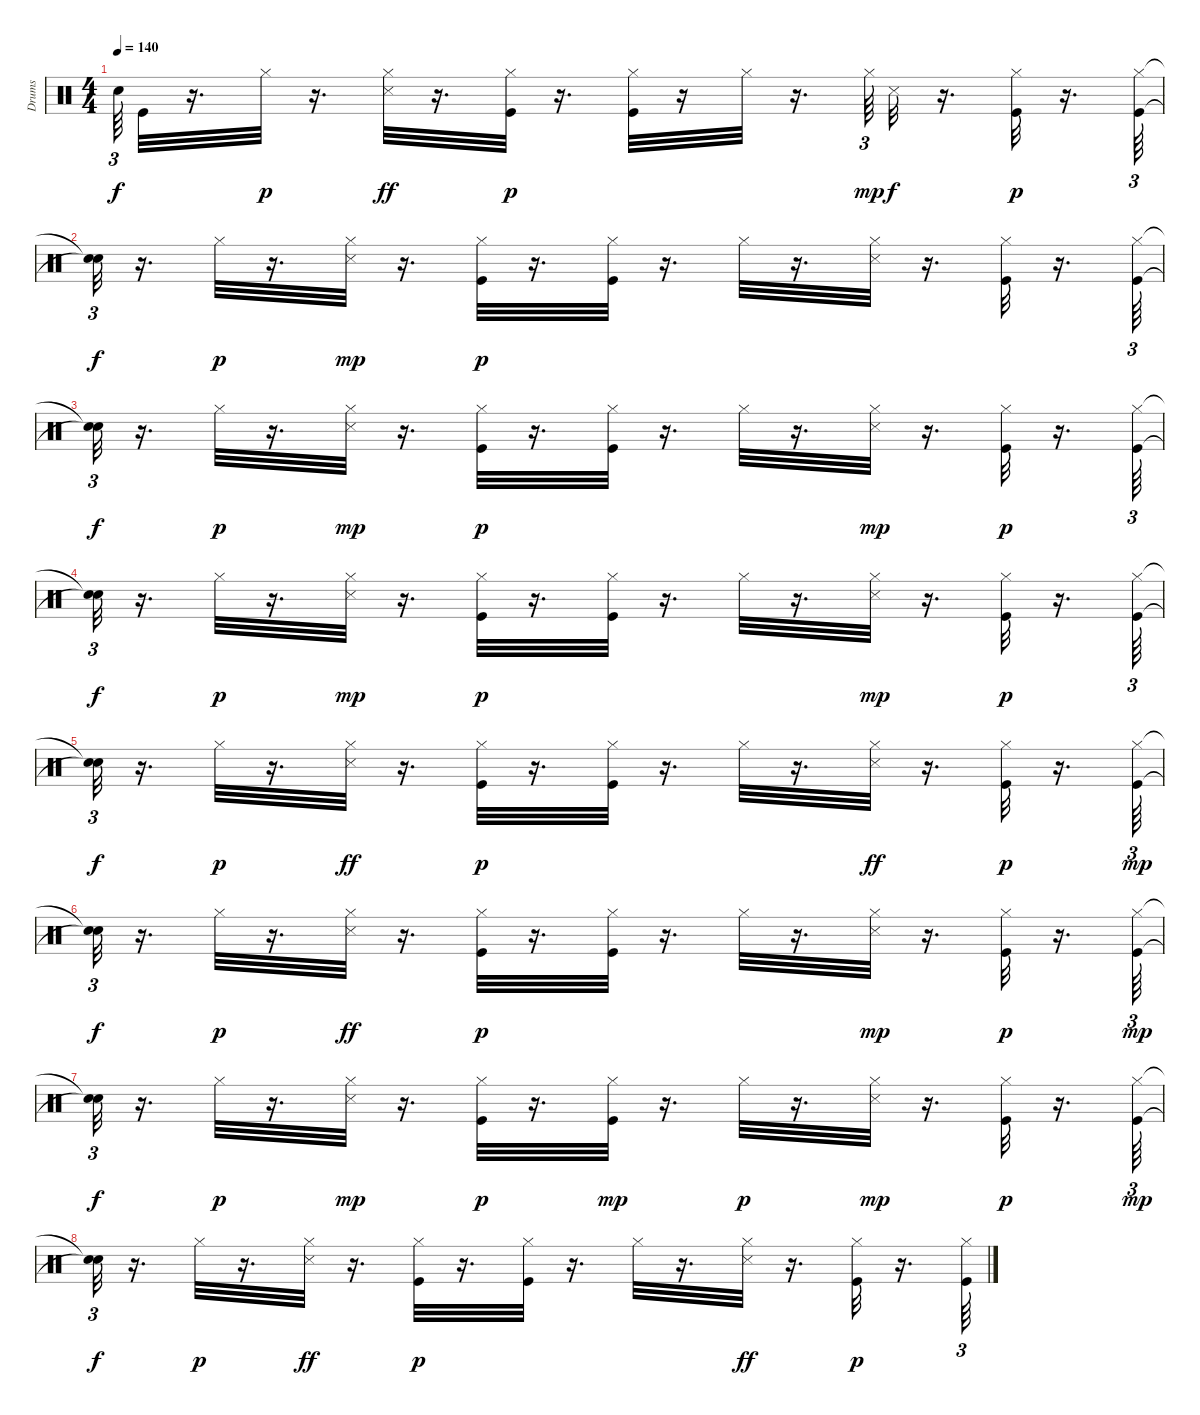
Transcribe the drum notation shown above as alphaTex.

\track ("Drums" "Drums") {instrument percussion}
\staff {score}
\articulation defaults
\ts (4 4)
\tempo 140
\clef neutral
\ks c "Snare (hit)"{t}.64{tu (3 2) dy f} "Kick (hit)".32
r.16{d} "Hi-Hat (closed)".32{dy p} r.16{d} ("Hi-Hat (closed)" "Snare (side stick) 3").32{dy ff} r.16{d} ("Hi-Hat (closed)" "Kick (hit)").32{dy p} r.16{d} ("Hi-Hat (closed)" "Kick (hit)").32 r.16 "Hi-Hat (closed)".32 r.16{d} "Hi-Hat (closed)".64{tu (3 2) dy mp} "Snare (side stick) 3".32{dy f} r.16{d} ("Hi-Hat (closed)" "Kick (hit)").32{dy p} r.16{d} ("Hi-Hat (closed)" "Kick (hit)").64{tu (3 2)} |
("Snare (hit)"{t} "Snare (hit)"{t}).32{tu (3 2) dy f} r.16{d} "Hi-Hat (closed)".32{dy p} r.16{d} ("Hi-Hat (closed)" "Snare (side stick) 3").32{dy mp} r.16{d} ("Kick (hit)" "Hi-Hat (closed)").32{dy p} r.16{d} ("Hi-Hat (closed)" "Kick (hit)").32 r.16{d} "Hi-Hat (closed)".32 r.16{d} ("Hi-Hat (closed)" "Snare (side stick) 3").32 r.16{d} ("Kick (hit)" "Hi-Hat (closed)").32 r.16{d} ("Hi-Hat (closed)" "Kick (hit)").64{tu (3 2)} |
("Snare (hit)"{t} "Snare (hit)"{t}).32{tu (3 2) dy f} r.16{d} "Hi-Hat (closed)".32{dy p} r.16{d} ("Hi-Hat (closed)" "Snare (side stick) 3").32{dy mp} r.16{d} ("Kick (hit)" "Hi-Hat (closed)").32{dy p} r.16{d} ("Kick (hit)" "Hi-Hat (closed)").32 r.16{d} "Hi-Hat (closed)".32 r.16{d} ("Hi-Hat (closed)" "Snare (side stick) 3").32{dy mp} r.16{d} ("Hi-Hat (closed)" "Kick (hit)").32{dy p} r.16{d} ("Hi-Hat (closed)" "Kick (hit)").64{tu (3 2)} |
("Snare (hit)"{t} "Snare (hit)"{t}).32{tu (3 2) dy f} r.16{d} "Hi-Hat (closed)".32{dy p} r.16{d} ("Hi-Hat (closed)" "Snare (side stick) 3").32{dy mp} r.16{d} ("Kick (hit)" "Hi-Hat (closed)").32{dy p} r.16{d} ("Kick (hit)" "Hi-Hat (closed)").32 r.16{d} "Hi-Hat (closed)".32 r.16{d} ("Snare (side stick) 3" "Hi-Hat (closed)").32{dy mp} r.16{d} ("Hi-Hat (closed)" "Kick (hit)").32{dy p} r.16{d} ("Hi-Hat (closed)" "Kick (hit)").64{tu (3 2)} |
("Snare (hit)"{t} "Snare (hit)"{t}).32{tu (3 2) dy f} r.16{d} "Hi-Hat (closed)".32{dy p} r.16{d} ("Hi-Hat (closed)" "Snare (side stick) 3").32{dy ff} r.16{d} ("Kick (hit)" "Hi-Hat (closed)").32{dy p} r.16{d} ("Kick (hit)" "Hi-Hat (closed)").32 r.16{d} "Hi-Hat (closed)".32 r.16{d} ("Hi-Hat (closed)" "Snare (side stick) 3").32{dy ff} r.16{d} ("Hi-Hat (closed)" "Kick (hit)").32{dy p} r.16{d} ("Hi-Hat (closed)" "Kick (hit)").64{tu (3 2) dy mp} |
("Snare (hit)"{t} "Snare (hit)"{t}).32{tu (3 2) dy f} r.16{d} "Hi-Hat (closed)".32{dy p} r.16{d} ("Hi-Hat (closed)" "Snare (side stick) 3").32{dy ff} r.16{d} ("Kick (hit)" "Hi-Hat (closed)").32{dy p} r.16{d} ("Hi-Hat (closed)" "Kick (hit)").32 r.16{d} "Hi-Hat (closed)".32 r.16{d} ("Snare (side stick) 3" "Hi-Hat (closed)").32{dy mp} r.16{d} ("Kick (hit)" "Hi-Hat (closed)").32{dy p} r.16{d} ("Hi-Hat (closed)" "Kick (hit)").64{tu (3 2) dy mp} |
("Snare (hit)"{t} "Snare (hit)"{t}).32{tu (3 2) dy f} r.16{d} "Hi-Hat (closed)".32{dy p} r.16{d} ("Snare (side stick) 3" "Hi-Hat (closed)").32{dy mp} r.16{d} ("Kick (hit)" "Hi-Hat (closed)").32{dy p} r.16{d} ("Hi-Hat (closed)" "Kick (hit)").32{dy mp} r.16{d} "Hi-Hat (closed)".32{dy p} r.16{d} ("Snare (side stick) 3" "Hi-Hat (closed)").32{dy mp} r.16{d} ("Hi-Hat (closed)" "Kick (hit)").32{dy p} r.16{d} ("Hi-Hat (closed)" "Kick (hit)").64{tu (3 2) dy mp} |
("Snare (hit)"{t} "Snare (hit)"{t}).32{tu (3 2) dy f} r.16{d} "Hi-Hat (closed)".32{dy p} r.16{d} ("Hi-Hat (closed)" "Snare (side stick) 3").32{dy ff} r.16{d} ("Hi-Hat (closed)" "Kick (hit)").32{dy p} r.16{d} ("Hi-Hat (closed)" "Kick (hit)").32 r.16{d} "Hi-Hat (closed)".32 r.16{d} ("Hi-Hat (closed)" "Snare (side stick) 3").32{dy ff} r.16{d} ("Hi-Hat (closed)" "Kick (hit)").32{dy p} r.16{d} ("Hi-Hat (closed)" "Kick (hit)").64{tu (3 2)}
